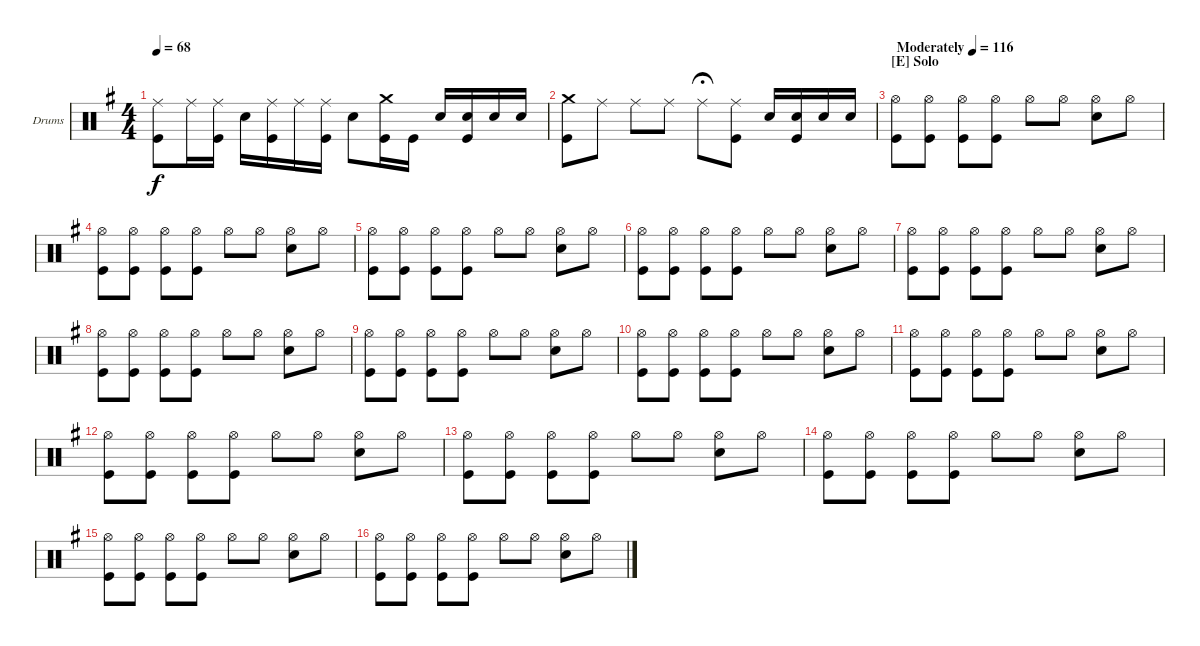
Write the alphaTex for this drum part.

\defaultSystemsLayout 4
\bracketExtendMode groupsimilarinstruments
\firstSystemTrackNameOrientation horizontal
\otherSystemsTrackNameOrientation horizontal
\track ("Drumkit" "Drums") {instrument percussion}
\staff {score}
\articulation defaults
\ts (4 4)
\tempo 68
\clef neutral
\scale
1.02648
\ks g
("Ride (middle)" "Kick (hit)").8{dy f} "Ride (middle)".16 ("Ride (middle)" "Kick (hit)").16 "Snare (hit) 2".16 ("Ride (middle)" "Kick (hit)").16 "Ride (middle)".16 ("Ride (middle)" "Kick (hit)").16 "Snare (hit) 2".8 ("Crash medium (hit)" "Kick (hit)").16 "Kick (hit)".16 "Snare (hit) 2".16 ("Snare (hit) 2" "Kick (hit)").16 "Snare (hit) 2".16 "Snare (hit) 2".16 |
\scale
0.973518 ("Crash medium (hit)" "Kick (hit)").8 "Ride (middle)".8 "Ride (middle)".8 "Ride (middle)".8 "Ride (middle)".8{fermata (medium 0.5)} ("Ride (middle)" "Kick (hit)").8 "Snare (hit) 2".16 ("Snare (hit) 2" "Kick (hit)").16 "Snare (hit) 2".16 "Snare (hit) 2".16 |
\section ("E" "Solo")
\tempo (116 "Moderately")
\scale
1.02648 ("Hi-Hat (open)" "Kick (hit)").8 ("Hi-Hat (open)" "Kick (hit)").8 ("Hi-Hat (open)" "Kick (hit)").8 ("Hi-Hat (open)" "Kick (hit)").8 "Hi-Hat (open)".8 "Hi-Hat (open)".8 ("Hi-Hat (open)" "Snare (hit) 2").8 "Hi-Hat (open)".8 |
\scale
0.973518 ("Hi-Hat (open)" "Kick (hit)").8 ("Hi-Hat (open)" "Kick (hit)").8 ("Hi-Hat (open)" "Kick (hit)").8 ("Hi-Hat (open)" "Kick (hit)").8 "Hi-Hat (open)".8 "Hi-Hat (open)".8 ("Hi-Hat (open)" "Snare (hit) 2").8 "Hi-Hat (open)".8 |
\scale
1.02648 ("Hi-Hat (open)" "Kick (hit)").8 ("Hi-Hat (open)" "Kick (hit)").8 ("Hi-Hat (open)" "Kick (hit)").8 ("Hi-Hat (open)" "Kick (hit)").8 "Hi-Hat (open)".8 "Hi-Hat (open)".8 ("Hi-Hat (open)" "Snare (hit) 2").8 "Hi-Hat (open)".8 |
\scale
0.973518 ("Hi-Hat (open)" "Kick (hit)").8 ("Hi-Hat (open)" "Kick (hit)").8 ("Hi-Hat (open)" "Kick (hit)").8 ("Hi-Hat (open)" "Kick (hit)").8 "Hi-Hat (open)".8 "Hi-Hat (open)".8 ("Hi-Hat (open)" "Snare (hit) 2").8 "Hi-Hat (open)".8 |
\scale
1.02648 ("Hi-Hat (open)" "Kick (hit)").8 ("Hi-Hat (open)" "Kick (hit)").8 ("Hi-Hat (open)" "Kick (hit)").8 ("Hi-Hat (open)" "Kick (hit)").8 "Hi-Hat (open)".8 "Hi-Hat (open)".8 ("Hi-Hat (open)" "Snare (hit) 2").8 "Hi-Hat (open)".8 |
\scale
0.973518 ("Hi-Hat (open)" "Kick (hit)").8 ("Hi-Hat (open)" "Kick (hit)").8 ("Hi-Hat (open)" "Kick (hit)").8 ("Hi-Hat (open)" "Kick (hit)").8 "Hi-Hat (open)".8 "Hi-Hat (open)".8 ("Hi-Hat (open)" "Snare (hit) 2").8 "Hi-Hat (open)".8 |
\scale
1.02648 ("Hi-Hat (open)" "Kick (hit)").8 ("Hi-Hat (open)" "Kick (hit)").8 ("Hi-Hat (open)" "Kick (hit)").8 ("Hi-Hat (open)" "Kick (hit)").8 "Hi-Hat (open)".8 "Hi-Hat (open)".8 ("Hi-Hat (open)" "Snare (hit) 2").8 "Hi-Hat (open)".8 |
\scale
0.973518 ("Hi-Hat (open)" "Kick (hit)").8 ("Hi-Hat (open)" "Kick (hit)").8 ("Hi-Hat (open)" "Kick (hit)").8 ("Hi-Hat (open)" "Kick (hit)").8 "Hi-Hat (open)".8 "Hi-Hat (open)".8 ("Hi-Hat (open)" "Snare (hit) 2").8 "Hi-Hat (open)".8 |
\scale
1.02648 ("Hi-Hat (open)" "Kick (hit)").8 ("Hi-Hat (open)" "Kick (hit)").8 ("Hi-Hat (open)" "Kick (hit)").8 ("Hi-Hat (open)" "Kick (hit)").8 "Hi-Hat (open)".8 "Hi-Hat (open)".8 ("Hi-Hat (open)" "Snare (hit) 2").8 "Hi-Hat (open)".8 |
\scale
0.973518 ("Hi-Hat (open)" "Kick (hit)").8 ("Hi-Hat (open)" "Kick (hit)").8 ("Hi-Hat (open)" "Kick (hit)").8 ("Hi-Hat (open)" "Kick (hit)").8 "Hi-Hat (open)".8 "Hi-Hat (open)".8 ("Hi-Hat (open)" "Snare (hit) 2").8 "Hi-Hat (open)".8 |
\scale
1.02648 ("Hi-Hat (open)" "Kick (hit)").8 ("Hi-Hat (open)" "Kick (hit)").8 ("Hi-Hat (open)" "Kick (hit)").8 ("Hi-Hat (open)" "Kick (hit)").8 "Hi-Hat (open)".8 "Hi-Hat (open)".8 ("Hi-Hat (open)" "Snare (hit) 2").8 "Hi-Hat (open)".8 |
\scale
0.973518 ("Hi-Hat (open)" "Kick (hit)").8 ("Hi-Hat (open)" "Kick (hit)").8 ("Hi-Hat (open)" "Kick (hit)").8 ("Hi-Hat (open)" "Kick (hit)").8 "Hi-Hat (open)".8 "Hi-Hat (open)".8 ("Hi-Hat (open)" "Snare (hit) 2").8 "Hi-Hat (open)".8 |
\scale
1.02648 ("Hi-Hat (open)" "Kick (hit)").8 ("Hi-Hat (open)" "Kick (hit)").8 ("Hi-Hat (open)" "Kick (hit)").8 ("Hi-Hat (open)" "Kick (hit)").8 "Hi-Hat (open)".8 "Hi-Hat (open)".8 ("Hi-Hat (open)" "Snare (hit) 2").8 "Hi-Hat (open)".8 |
\scale
0.973518 ("Hi-Hat (open)" "Kick (hit)").8 ("Hi-Hat (open)" "Kick (hit)").8 ("Hi-Hat (open)" "Kick (hit)").8 ("Hi-Hat (open)" "Kick (hit)").8 "Hi-Hat (open)".8 "Hi-Hat (open)".8 ("Hi-Hat (open)" "Snare (hit) 2").8 "Hi-Hat (open)".8
